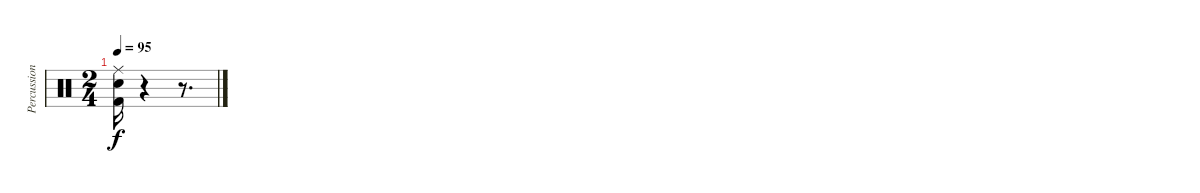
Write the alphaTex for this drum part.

\track ("Percussion" "Percussion") {instrument percussion}
\staff {score}
\articulation defaults
\ts (2 4)
\tempo 95
\clef neutral
\ks c
("Ride (middle)" "Electric Snare (hit)" "Kick (hit) 2").16{dy f} r.4 r.8{d}
